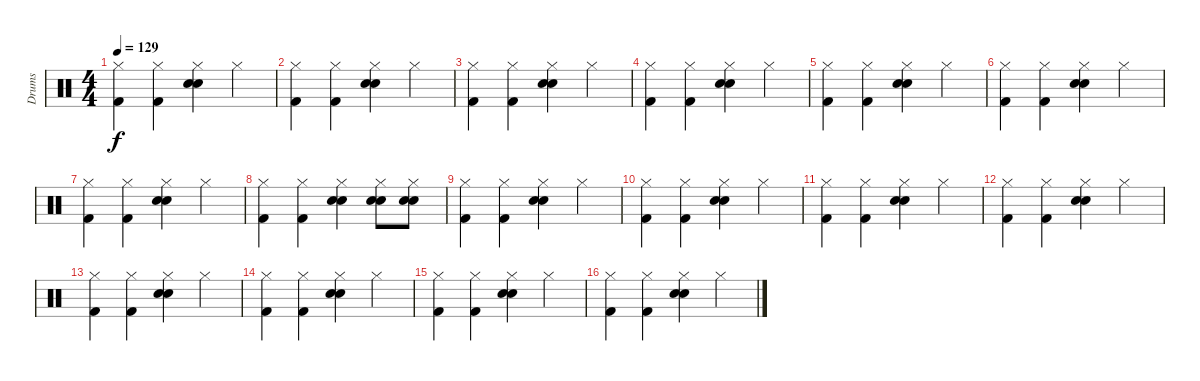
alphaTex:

\track ("Drums" "Drums") {instrument percussion}
\staff {score}
\articulation defaults
\ts (4 4)
\tempo 129
\clef neutral
\ks c
("Kick (hit) 2" "Hi-Hat (closed)").4{dy f} ("Kick (hit) 2" "Hi-Hat (closed)").4 ("Snare (hit) 2" "Electric Snare (hit)" "Hi-Hat (closed)").4 "Hi-Hat (closed)".4 |
("Kick (hit) 2" "Hi-Hat (closed)").4 ("Kick (hit) 2" "Hi-Hat (closed)").4 ("Snare (hit) 2" "Electric Snare (hit)" "Hi-Hat (closed)").4 "Hi-Hat (closed)".4 |
("Kick (hit) 2" "Hi-Hat (closed)").4 ("Kick (hit) 2" "Hi-Hat (closed)").4 ("Snare (hit) 2" "Electric Snare (hit)" "Hi-Hat (closed)").4 "Hi-Hat (closed)".4 |
("Kick (hit) 2" "Hi-Hat (closed)").4 ("Kick (hit) 2" "Hi-Hat (closed)").4 ("Snare (hit) 2" "Electric Snare (hit)" "Hi-Hat (closed)").4 "Hi-Hat (closed)".4 |
("Kick (hit) 2" "Hi-Hat (closed)").4 ("Kick (hit) 2" "Hi-Hat (closed)").4 ("Snare (hit) 2" "Electric Snare (hit)" "Hi-Hat (closed)").4 "Hi-Hat (closed)".4 |
("Kick (hit) 2" "Hi-Hat (closed)").4 ("Kick (hit) 2" "Hi-Hat (closed)").4 ("Snare (hit) 2" "Electric Snare (hit)" "Hi-Hat (closed)").4 "Hi-Hat (closed)".4 |
("Kick (hit) 2" "Hi-Hat (closed)").4 ("Kick (hit) 2" "Hi-Hat (closed)").4 ("Snare (hit) 2" "Electric Snare (hit)" "Hi-Hat (closed)").4 "Hi-Hat (closed)".4 |
("Kick (hit) 2" "Hi-Hat (closed)").4 ("Kick (hit) 2" "Hi-Hat (closed)").4 ("Snare (hit) 2" "Electric Snare (hit)" "Hi-Hat (closed)").4 ("Electric Snare (hit)" "Snare (hit) 2" "Hi-Hat (closed)").8 ("Electric Snare (hit)" "Snare (hit) 2" "Hi-Hat (closed)").8 |
("Kick (hit) 2" "Hi-Hat (closed)").4 ("Kick (hit) 2" "Hi-Hat (closed)").4 ("Snare (hit) 2" "Electric Snare (hit)" "Hi-Hat (closed)").4 "Hi-Hat (closed)".4 |
("Kick (hit) 2" "Hi-Hat (closed)").4 ("Kick (hit) 2" "Hi-Hat (closed)").4 ("Snare (hit) 2" "Electric Snare (hit)" "Hi-Hat (closed)").4 "Hi-Hat (closed)".4 |
("Kick (hit) 2" "Hi-Hat (closed)").4 ("Kick (hit) 2" "Hi-Hat (closed)").4 ("Snare (hit) 2" "Electric Snare (hit)" "Hi-Hat (closed)").4 "Hi-Hat (closed)".4 |
("Kick (hit) 2" "Hi-Hat (closed)").4 ("Kick (hit) 2" "Hi-Hat (closed)").4 ("Snare (hit) 2" "Electric Snare (hit)" "Hi-Hat (closed)").4 "Hi-Hat (closed)".4 |
("Kick (hit) 2" "Hi-Hat (closed)").4 ("Kick (hit) 2" "Hi-Hat (closed)").4 ("Snare (hit) 2" "Electric Snare (hit)" "Hi-Hat (closed)").4 "Hi-Hat (closed)".4 |
("Kick (hit) 2" "Hi-Hat (closed)").4 ("Kick (hit) 2" "Hi-Hat (closed)").4 ("Snare (hit) 2" "Electric Snare (hit)" "Hi-Hat (closed)").4 "Hi-Hat (closed)".4 |
("Kick (hit) 2" "Hi-Hat (closed)").4 ("Kick (hit) 2" "Hi-Hat (closed)").4 ("Snare (hit) 2" "Electric Snare (hit)" "Hi-Hat (closed)").4 "Hi-Hat (closed)".4 |
("Kick (hit) 2" "Hi-Hat (closed)").4 ("Kick (hit) 2" "Hi-Hat (closed)").4 ("Snare (hit) 2" "Electric Snare (hit)" "Hi-Hat (closed)").4 "Hi-Hat (closed)".4
